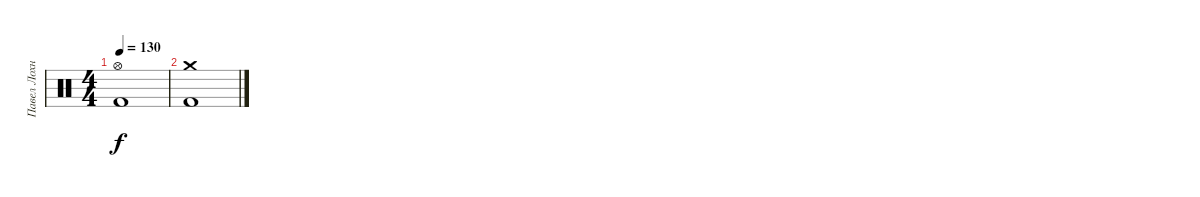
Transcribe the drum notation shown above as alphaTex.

\track ("Павел Лохнин" "Павел Лохн") {instrument percussion}
\staff {score}
\articulation defaults
\ts (4 4)
\tempo 130
\clef neutral
\ks c
("Hi-Hat (open)" "Kick (hit) 2").1{dy f} |
("Crash medium (hit)" "Kick (hit) 2").1
